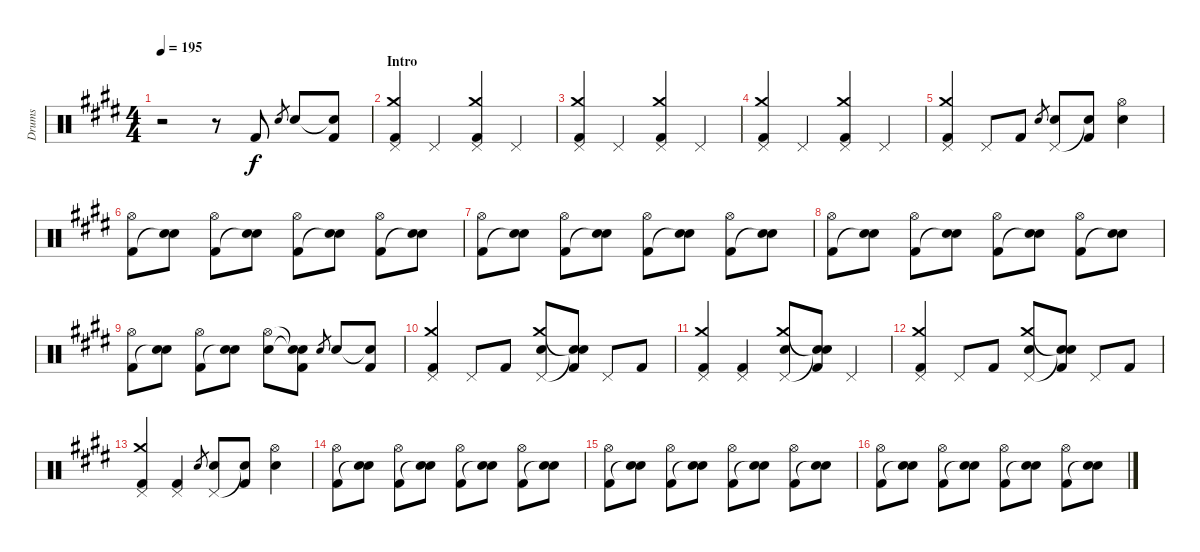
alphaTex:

\track ("Drums" "Drums") {instrument percussion}
\staff {score}
\articulation defaults
\ts (4 4)
\tempo 195
\clef neutral
\ks e
r.2{dy f} r.8 "Kick (hit) 2".8 "Electric Snare (hit)".8{gr} "Electric Snare (hit)".8 ("Snare (hit)"{t} "Kick (hit) 2").8 |
\section ("" "Intro")
("Crash medium (hit)" "Pedal Hi-Hat (hit)" "Kick (hit) 2").4 "Pedal Hi-Hat (hit)".4 ("Crash medium (hit)" "Pedal Hi-Hat (hit)" "Kick (hit) 2").4 "Pedal Hi-Hat (hit)".4 |
("Crash medium (hit)" "Pedal Hi-Hat (hit)" "Kick (hit) 2").4 "Pedal Hi-Hat (hit)".4 ("Crash medium (hit)" "Pedal Hi-Hat (hit)" "Kick (hit) 2").4 "Pedal Hi-Hat (hit)".4 |
("Crash medium (hit)" "Pedal Hi-Hat (hit)" "Kick (hit) 2").4 "Pedal Hi-Hat (hit)".4 ("Crash medium (hit)" "Pedal Hi-Hat (hit)" "Kick (hit) 2").4 "Pedal Hi-Hat (hit)".4 |
("Crash medium (hit)" "Pedal Hi-Hat (hit)" "Kick (hit) 2").4 "Pedal Hi-Hat (hit)".8 "Kick (hit) 2".8 "Electric Snare (hit)".8{gr} ("Pedal Hi-Hat (hit)" "Electric Snare (hit)").8 ("Snare (hit)"{t} "Kick (hit) 2").8 ("Hi-Hat (open)" "Electric Snare (hit)").4 |
("Hi-Hat (open)" "Kick (hit) 2").8 ("Electric Snare (hit)" "Snare (hit)"{t}).8 ("Hi-Hat (open)" "Kick (hit) 2").8 ("Electric Snare (hit)" "Snare (hit)"{t}).8 ("Hi-Hat (open)" "Kick (hit) 2").8 ("Electric Snare (hit)" "Snare (hit)"{t}).8 ("Hi-Hat (open)" "Kick (hit) 2").8 ("Electric Snare (hit)" "Snare (hit)"{t}).8 |
("Hi-Hat (open)" "Kick (hit) 2").8 ("Electric Snare (hit)" "Snare (hit)"{t}).8 ("Hi-Hat (open)" "Kick (hit) 2").8 ("Electric Snare (hit)" "Snare (hit)"{t}).8 ("Hi-Hat (open)" "Kick (hit) 2").8 ("Electric Snare (hit)" "Snare (hit)"{t}).8 ("Hi-Hat (open)" "Kick (hit) 2").8 ("Electric Snare (hit)" "Snare (hit)"{t}).8 |
("Hi-Hat (open)" "Kick (hit) 2").8 ("Electric Snare (hit)" "Snare (hit)"{t}).8 ("Hi-Hat (open)" "Kick (hit) 2").8 ("Electric Snare (hit)" "Snare (hit)"{t}).8 ("Hi-Hat (open)" "Kick (hit) 2").8 ("Electric Snare (hit)" "Snare (hit)"{t}).8 ("Hi-Hat (open)" "Kick (hit) 2").8 ("Electric Snare (hit)" "Snare (hit)"{t}).8 |
("Hi-Hat (open)" "Kick (hit) 2").8 ("Electric Snare (hit)" "Snare (hit)"{t}).8 ("Hi-Hat (open)" "Kick (hit) 2").8 ("Electric Snare (hit)" "Snare (hit)"{t}).8 ("Hi-Hat (open)" "Electric Snare (hit)").8 ("Snare (hit)"{t} "Snare (hit)"{t} "Kick (hit) 2").8 "Electric Snare (hit)".8{gr} "Electric Snare (hit)".8 ("Snare (hit)"{t} "Kick (hit) 2").8 |
("Crash medium (hit)" "Pedal Hi-Hat (hit)" "Kick (hit) 2").4 "Pedal Hi-Hat (hit)".8 "Kick (hit) 2".8 ("Crash medium (hit)" "Pedal Hi-Hat (hit)" "Electric Snare (hit)").8 ("Snare (hit)"{t} "Snare (hit)"{t} "Kick (hit) 2").8 "Pedal Hi-Hat (hit)".8 "Kick (hit) 2".8 |
("Crash medium (hit)" "Pedal Hi-Hat (hit)" "Kick (hit) 2").4 ("Pedal Hi-Hat (hit)" "Kick (hit) 2").4 ("Crash medium (hit)" "Pedal Hi-Hat (hit)" "Electric Snare (hit)").8 ("Snare (hit)"{t} "Snare (hit)"{t} "Kick (hit) 2").8 "Pedal Hi-Hat (hit)".4 |
("Crash medium (hit)" "Pedal Hi-Hat (hit)" "Kick (hit) 2").4 "Pedal Hi-Hat (hit)".8 "Kick (hit) 2".8 ("Crash medium (hit)" "Pedal Hi-Hat (hit)" "Electric Snare (hit)").8 ("Snare (hit)"{t} "Snare (hit)"{t} "Kick (hit) 2").8 "Pedal Hi-Hat (hit)".8 "Kick (hit) 2".8 |
("Crash medium (hit)" "Pedal Hi-Hat (hit)" "Kick (hit) 2").4 ("Pedal Hi-Hat (hit)" "Kick (hit) 2").4 "Electric Snare (hit)".8{gr} ("Pedal Hi-Hat (hit)" "Electric Snare (hit)").8 ("Snare (hit)"{t} "Kick (hit) 2").8 ("Hi-Hat (open)" "Electric Snare (hit)").4 |
("Hi-Hat (open)" "Kick (hit) 2").8 ("Electric Snare (hit)" "Snare (hit)"{t}).8 ("Hi-Hat (open)" "Kick (hit) 2").8 ("Electric Snare (hit)" "Snare (hit)"{t}).8 ("Hi-Hat (open)" "Kick (hit) 2").8 ("Electric Snare (hit)" "Snare (hit)"{t}).8 ("Hi-Hat (open)" "Kick (hit) 2").8 ("Electric Snare (hit)" "Snare (hit)"{t}).8 |
("Hi-Hat (open)" "Kick (hit) 2").8 ("Electric Snare (hit)" "Snare (hit)"{t}).8 ("Hi-Hat (open)" "Kick (hit) 2").8 ("Electric Snare (hit)" "Snare (hit)"{t}).8 ("Hi-Hat (open)" "Kick (hit) 2").8 ("Electric Snare (hit)" "Snare (hit)"{t}).8 ("Hi-Hat (open)" "Kick (hit) 2").8 ("Electric Snare (hit)" "Snare (hit)"{t}).8 |
("Hi-Hat (open)" "Kick (hit) 2").8 ("Electric Snare (hit)" "Snare (hit)"{t}).8 ("Hi-Hat (open)" "Kick (hit) 2").8 ("Electric Snare (hit)" "Snare (hit)"{t}).8 ("Hi-Hat (open)" "Kick (hit) 2").8 ("Electric Snare (hit)" "Snare (hit)"{t}).8 ("Hi-Hat (open)" "Kick (hit) 2").8 ("Electric Snare (hit)" "Snare (hit)"{t}).8
